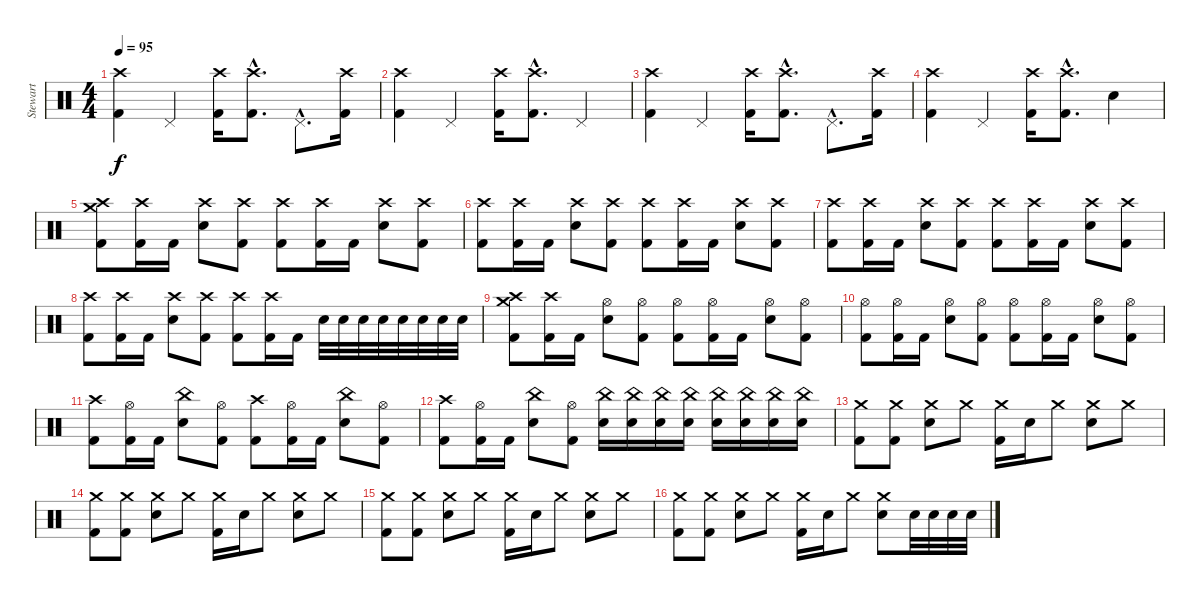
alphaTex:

\track ("Stewart" "Stewart") {instrument percussion}
\staff {score}
\articulation defaults
\ts (4 4)
\tempo 95
\clef neutral
\ks c
("Crash high (hit)" "Kick (hit) 2").4{dy f} "Pedal Hi-Hat (hit)".4 ("Crash high (hit)" "Kick (hit) 2").16 ("Crash high (hit)"{hac} "Kick (hit) 2"{hac}).8{d} "Pedal Hi-Hat (hit)"{hac}.8{d} ("Crash high (hit)" "Kick (hit) 2").16 |
("Crash high (hit)" "Kick (hit) 2").4 "Pedal Hi-Hat (hit)".4 ("Crash high (hit)" "Kick (hit) 2").16 ("Crash high (hit)"{hac} "Kick (hit) 2"{hac}).8{d} "Pedal Hi-Hat (hit)".4 |
("Crash high (hit)" "Kick (hit) 2").4 "Pedal Hi-Hat (hit)".4 ("Crash high (hit)" "Kick (hit) 2").16 ("Crash high (hit)"{hac} "Kick (hit) 2"{hac}).8{d} "Pedal Hi-Hat (hit)"{hac}.8{d} ("Crash high (hit)" "Kick (hit) 2").16 |
("Crash high (hit)" "Kick (hit) 2").4 "Pedal Hi-Hat (hit)".4 ("Crash high (hit)" "Kick (hit) 2").16 ("Crash high (hit)"{hac} "Kick (hit) 2"{hac}).8{d} "Electric Snare (hit)".4 |
("Crash high (hit)" "Kick (hit) 2" "Crash medium (hit)").8 ("Crash high (hit)" "Kick (hit) 2").16 "Kick (hit) 2".16 ("Crash high (hit)" "Snare (hit) 2").8 ("Crash high (hit)" "Kick (hit) 2").8 ("Crash high (hit)" "Kick (hit) 2").8 ("Crash high (hit)" "Kick (hit) 2").16 "Kick (hit) 2".16 ("Crash high (hit)" "Snare (hit) 2").8 ("Crash high (hit)" "Kick (hit) 2").8 |
("Crash high (hit)" "Kick (hit) 2").8 ("Crash high (hit)" "Kick (hit) 2").16 "Kick (hit) 2".16 ("Crash high (hit)" "Snare (hit) 2").8 ("Crash high (hit)" "Kick (hit) 2").8 ("Crash high (hit)" "Kick (hit) 2").8 ("Crash high (hit)" "Kick (hit) 2").16 "Kick (hit) 2".16 ("Crash high (hit)" "Snare (hit) 2").8 ("Crash high (hit)" "Kick (hit) 2").8 |
("Crash high (hit)" "Kick (hit) 2").8 ("Crash high (hit)" "Kick (hit) 2").16 "Kick (hit) 2".16 ("Crash high (hit)" "Snare (hit) 2").8 ("Crash high (hit)" "Kick (hit) 2").8 ("Crash high (hit)" "Kick (hit) 2").8 ("Crash high (hit)" "Kick (hit) 2").16 "Kick (hit) 2".16 ("Crash high (hit)" "Snare (hit) 2").8 ("Crash high (hit)" "Kick (hit) 2").8 |
("Crash high (hit)" "Kick (hit) 2").8 ("Crash high (hit)" "Kick (hit) 2").16 "Kick (hit) 2".16 ("Crash high (hit)" "Snare (hit) 2").8 ("Crash high (hit)" "Kick (hit) 2").8 ("Crash high (hit)" "Kick (hit) 2").8 ("Crash high (hit)" "Kick (hit) 2").16 "Kick (hit) 2".16 "Snare (hit) 2".32 "Snare (hit) 2".32 "Snare (hit) 2".32 "Snare (hit) 2".32 "Snare (hit) 2".32 "Snare (hit) 2".32 "Snare (hit) 2".32 "Snare (hit) 2".32 |
("Crash high (hit)" "Kick (hit) 2" "Crash medium (hit)").8 ("Crash high (hit)" "Kick (hit) 2").16 "Kick (hit) 2".16 ("Hi-Hat (open)" "Snare (hit) 2").8 ("Hi-Hat (open)" "Kick (hit) 2").8 ("Hi-Hat (open)" "Kick (hit) 2").8 ("Hi-Hat (open)" "Kick (hit) 2").16 "Kick (hit) 2".16 ("Hi-Hat (open)" "Snare (hit) 2").8 ("Hi-Hat (open)" "Kick (hit) 2").8 |
("Hi-Hat (open)" "Kick (hit) 2").8 ("Hi-Hat (open)" "Kick (hit) 2").16 "Kick (hit) 2".16 ("Hi-Hat (open)" "Snare (hit) 2").8 ("Hi-Hat (open)" "Kick (hit) 2").8 ("Hi-Hat (open)" "Kick (hit) 2").8 ("Hi-Hat (open)" "Kick (hit) 2").16 "Kick (hit) 2".16 ("Hi-Hat (open)" "Snare (hit) 2").8 ("Hi-Hat (open)" "Kick (hit) 2").8 |
("Crash high (hit)" "Kick (hit) 2").8 ("Hi-Hat (open)" "Kick (hit) 2").16 "Kick (hit) 2".16 ("China (hit)" "Snare (hit) 2").8 ("Hi-Hat (open)" "Kick (hit) 2").8 ("Crash high (hit)" "Kick (hit) 2").8 ("Hi-Hat (open)" "Kick (hit) 2").16 "Kick (hit) 2".16 ("China (hit)" "Snare (hit) 2").8 ("Hi-Hat (open)" "Kick (hit) 2").8 |
("Crash high (hit)" "Kick (hit) 2").8 ("Hi-Hat (open)" "Kick (hit) 2").16 "Kick (hit) 2".16 ("China (hit)" "Snare (hit) 2").8 ("Hi-Hat (open)" "Kick (hit) 2").8 ("China (hit)" "Snare (hit) 2").16 ("China (hit)" "Snare (hit) 2").16 ("China (hit)" "Snare (hit) 2").16 ("China (hit)" "Snare (hit) 2").16 ("China (hit)" "Snare (hit) 2").16 ("China (hit)" "Snare (hit) 2").16 ("China (hit)" "Snare (hit) 2").16 ("China (hit)" "Snare (hit) 2").16 |
("Crash medium (hit)" "Kick (hit) 2").8 ("Crash medium (hit)" "Kick (hit) 2").8 ("Crash medium (hit)" "Snare (hit) 2").8 "Crash medium (hit)".8 ("Crash medium (hit)" "Kick (hit) 2").16 "Snare (hit) 2".16 "Crash medium (hit)".8 ("Crash medium (hit)" "Snare (hit) 2").8 "Crash medium (hit)".8 |
("Crash medium (hit)" "Kick (hit) 2").8 ("Crash medium (hit)" "Kick (hit) 2").8 ("Crash medium (hit)" "Snare (hit) 2").8 "Crash medium (hit)".8 ("Crash medium (hit)" "Kick (hit) 2").16 "Snare (hit) 2".16 "Crash medium (hit)".8 ("Crash medium (hit)" "Snare (hit) 2").8 "Crash medium (hit)".8 |
("Crash medium (hit)" "Kick (hit) 2").8 ("Crash medium (hit)" "Kick (hit) 2").8 ("Crash medium (hit)" "Snare (hit) 2").8 "Crash medium (hit)".8 ("Crash medium (hit)" "Kick (hit) 2").16 "Snare (hit) 2".16 "Crash medium (hit)".8 ("Crash medium (hit)" "Snare (hit) 2").8 "Crash medium (hit)".8 |
("Crash medium (hit)" "Kick (hit) 2").8 ("Crash medium (hit)" "Kick (hit) 2").8 ("Crash medium (hit)" "Snare (hit) 2").8 "Crash medium (hit)".8 ("Crash medium (hit)" "Kick (hit) 2").16 "Snare (hit) 2".16 "Crash medium (hit)".8 ("Crash medium (hit)" "Snare (hit) 2").8 "Snare (hit) 2".32 "Snare (hit) 2".32 "Snare (hit) 2".32 "Snare (hit) 2".32
